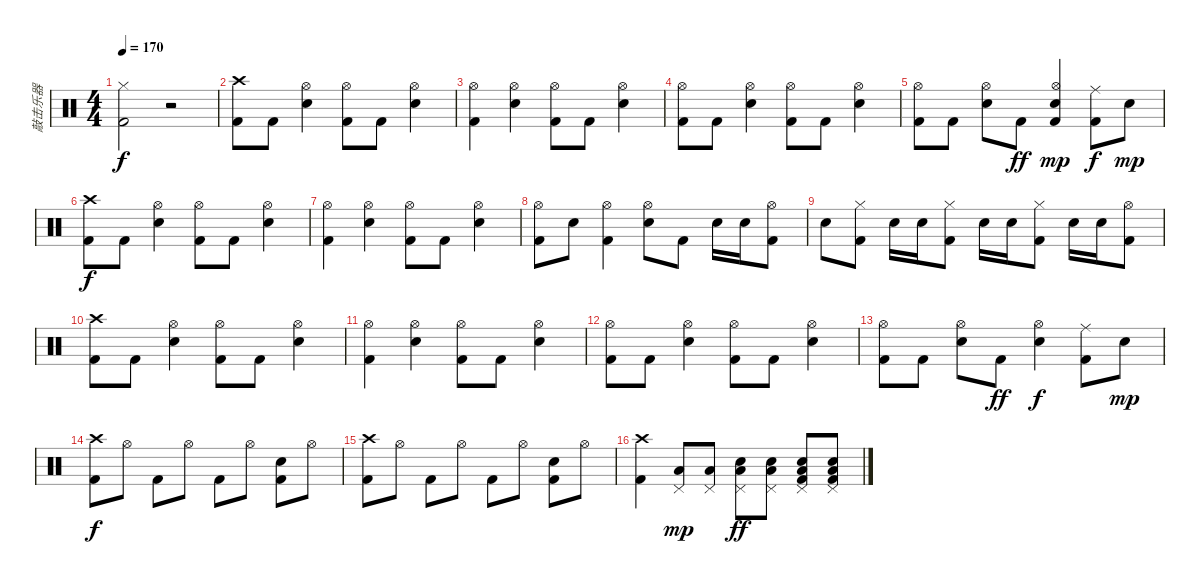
\track ("敲击乐器" "敲击乐器") {instrument percussion}
\staff {score}
\articulation defaults
\ts (4 4)
\tempo 170
\clef neutral
\ks c
("Hi-Hat (closed)" "Kick (hit) 2").2{dy f} r.2 |
("Crash high (hit)" "Kick (hit) 2").8 "Kick (hit) 2".8 ("Hi-Hat (open)" "Snare (hit) 2").4 ("Hi-Hat (open)" "Kick (hit) 2").8 "Kick (hit) 2".8 ("Hi-Hat (open)" "Snare (hit) 2").4 |
("Hi-Hat (open)" "Kick (hit) 2").4 ("Hi-Hat (open)" "Snare (hit) 2").4 ("Hi-Hat (open)" "Kick (hit) 2").8 "Kick (hit) 2".8 ("Hi-Hat (open)" "Snare (hit) 2").4 |
("Hi-Hat (open)" "Kick (hit) 2").8 "Kick (hit) 2".8 ("Hi-Hat (open)" "Snare (hit) 2").4 ("Hi-Hat (open)" "Kick (hit) 2").8 "Kick (hit) 2".8 ("Hi-Hat (open)" "Snare (hit) 2").4 |
("Hi-Hat (open)" "Kick (hit) 2").8 "Kick (hit) 2".8 ("Hi-Hat (open)" "Snare (hit) 2").8 "Kick (hit) 2".8{dy ff} ("Hi-Hat (open)" "Snare (hit) 2" "Kick (hit) 2").4{dy mp} ("Ride (middle)" "Kick (hit) 2").8{dy f} "Snare (hit) 2".8{dy mp} |
("Crash high (hit)" "Kick (hit) 2").8{dy f} "Kick (hit) 2".8 ("Hi-Hat (open)" "Snare (hit) 2").4 ("Hi-Hat (open)" "Kick (hit) 2").8 "Kick (hit) 2".8 ("Hi-Hat (open)" "Snare (hit) 2").4 |
("Hi-Hat (open)" "Kick (hit) 2").4 ("Hi-Hat (open)" "Snare (hit) 2").4 ("Hi-Hat (open)" "Kick (hit) 2").8 "Kick (hit) 2".8 ("Hi-Hat (open)" "Snare (hit) 2").4 |
("Hi-Hat (open)" "Kick (hit) 2").8 "Snare (hit) 2".8 ("Hi-Hat (open)" "Kick (hit) 2").4 ("Hi-Hat (open)" "Snare (hit) 2").8 "Kick (hit) 2".8 "Snare (hit) 2".16 "Snare (hit) 2".16 ("Hi-Hat (open)" "Kick (hit) 2").8 |
"Snare (hit) 2".8 ("Hi-Hat (closed)" "Kick (hit) 2").8 "Snare (hit) 2".16 "Snare (hit) 2".16 ("Hi-Hat (closed)" "Kick (hit) 2").8 "Snare (hit) 2".16 "Snare (hit) 2".16 ("Hi-Hat (closed)" "Kick (hit) 2").8 "Snare (hit) 2".16 "Snare (hit) 2".16 ("Hi-Hat (open)" "Kick (hit) 2").8 |
("Crash high (hit)" "Kick (hit) 2").8 "Kick (hit) 2".8 ("Hi-Hat (open)" "Snare (hit) 2").4 ("Hi-Hat (open)" "Kick (hit) 2").8 "Kick (hit) 2".8 ("Hi-Hat (open)" "Snare (hit) 2").4 |
("Hi-Hat (open)" "Kick (hit) 2").4 ("Hi-Hat (open)" "Snare (hit) 2").4 ("Hi-Hat (open)" "Kick (hit) 2").8 "Kick (hit) 2".8 ("Hi-Hat (open)" "Snare (hit) 2").4 |
("Hi-Hat (open)" "Kick (hit) 2").8 "Kick (hit) 2".8 ("Hi-Hat (open)" "Snare (hit) 2").4 ("Hi-Hat (open)" "Kick (hit) 2").8 "Kick (hit) 2".8 ("Hi-Hat (open)" "Snare (hit) 2").4 |
("Hi-Hat (open)" "Kick (hit) 2").8 "Kick (hit) 2".8 ("Hi-Hat (open)" "Snare (hit) 2").8 "Kick (hit) 2".8{dy ff} ("Hi-Hat (open)" "Snare (hit) 2").4{dy f} ("Ride (middle)" "Kick (hit) 2").8 "Snare (hit) 2".8{dy mp} |
("Crash high (hit)" "Kick (hit) 2").8{dy f} "Hi-Hat (open)".8 "Kick (hit) 2".8 "Hi-Hat (open)".8 "Kick (hit) 2".8 "Hi-Hat (open)".8 ("Snare (hit) 2" "Kick (hit) 2").8 "Hi-Hat (open)".8 |
("Crash high (hit)" "Kick (hit) 2").8 "Hi-Hat (open)".8 "Kick (hit) 2".8 "Hi-Hat (open)".8 "Kick (hit) 2".8 "Hi-Hat (open)".8 ("Snare (hit) 2" "Kick (hit) 2").8 "Hi-Hat (open)".8 |
("Crash high (hit)" "Kick (hit) 2").4 ("Pedal Hi-Hat (hit)" "Low Floor Tom (hit)").8{dy mp} ("Pedal Hi-Hat (hit)" "Low Floor Tom (hit)").8 ("Pedal Hi-Hat (hit)" "Snare (hit) 2" "Low Floor Tom (hit)").8{dy ff} ("Pedal Hi-Hat (hit)" "Snare (hit) 2" "Low Floor Tom (hit)").8 ("Pedal Hi-Hat (hit)" "Snare (hit) 2" "Low Floor Tom (hit)" "Kick (hit) 2").8 ("Pedal Hi-Hat (hit)" "Snare (hit) 2" "Low Floor Tom (hit)" "Kick (hit) 2").8
